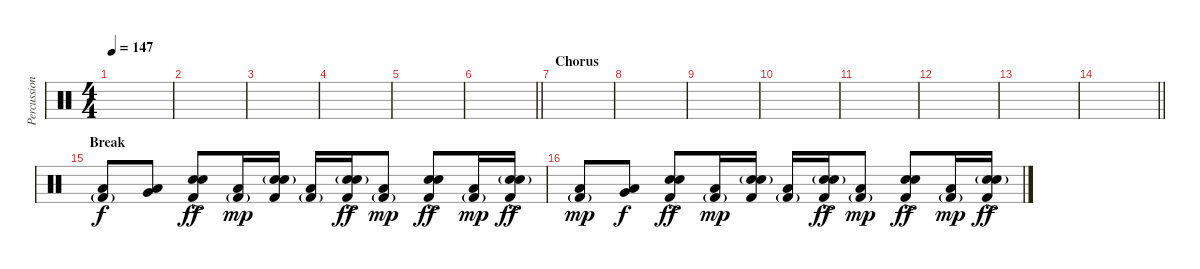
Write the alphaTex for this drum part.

\track ("Percussions" "Percussion") {instrument percussion}
\staff {score}
\articulation defaults
\ts (4 4)
\tempo 147
\clef neutral
\ks c
|
|
|
|
|
\barLineRight lightlight
|
\section ("" "Chorus")
|
|
|
|
|
|
|
\barLineRight lightlight
|
\section ("" "Break")
("Low Floor Tom (hit)" "Kick (hit) 2"{g}).8{volume 10} ("Very Low Tom (hit)" "Low Floor Tom (hit)").8{dy f} ("Electric Snare (hit)" "Snare (hit) 2" "Kick (hit) 2"{ac}).8{dy ff} ("Low Floor Tom (hit)" "Kick (hit) 2"{g}).16{dy mp} ("Electric Snare (hit)"{g} "Snare (hit) 2"{g} "Kick (hit) 2").16 ("Low Floor Tom (hit)" "Kick (hit) 2"{g}).16 ("Electric Snare (hit)"{g} "Snare (hit) 2" "Kick (hit) 2"{ac}).16{dy ff} ("Low Floor Tom (hit)" "Kick (hit) 2"{g}).8{dy mp} ("Electric Snare (hit)" "Snare (hit) 2" "Kick (hit) 2"{ac}).8{dy ff} ("Low Floor Tom (hit)" "Kick (hit) 2"{g}).16{dy mp} ("Electric Snare (hit)"{g} "Snare (hit) 2" "Kick (hit) 2"{ac}).16{dy ff} |
("Low Floor Tom (hit)" "Kick (hit) 2"{g}).8{dy mp} ("Very Low Tom (hit)" "Low Floor Tom (hit)").8{dy f} ("Electric Snare (hit)" "Snare (hit) 2" "Kick (hit) 2"{ac}).8{dy ff} ("Low Floor Tom (hit)" "Kick (hit) 2"{g}).16{dy mp} ("Electric Snare (hit)"{g} "Snare (hit) 2"{g} "Kick (hit) 2").16 ("Low Floor Tom (hit)" "Kick (hit) 2"{g}).16 ("Electric Snare (hit)"{g} "Snare (hit) 2" "Kick (hit) 2"{ac}).16{dy ff} ("Low Floor Tom (hit)" "Kick (hit) 2"{g}).8{dy mp} ("Electric Snare (hit)" "Snare (hit) 2" "Kick (hit) 2"{ac}).8{dy ff} ("Low Floor Tom (hit)" "Kick (hit) 2"{g}).16{dy mp} ("Electric Snare (hit)"{g} "Snare (hit) 2" "Kick (hit) 2"{ac}).16{dy ff}
